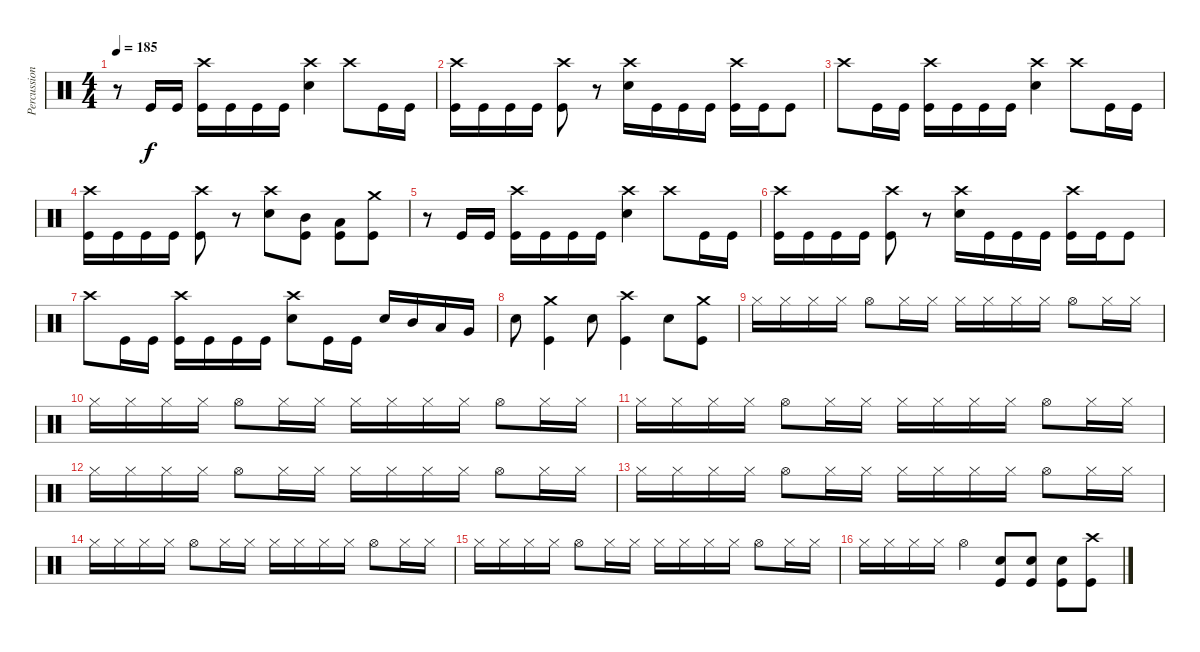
\track ("Percussion" "Percussion") {instrument percussion}
\staff {score}
\articulation defaults
\ts (4 4)
\tempo 185
\clef neutral
\ks c
r.8{dy f} "Kick (hit)".16 "Kick (hit)".16 ("Crash high (hit)" "Kick (hit)").16 "Kick (hit)".16 "Kick (hit)".16 "Kick (hit)".16 ("Crash high (hit)" "Electric Snare (hit)").4 "Crash high (hit)".8 "Kick (hit)".16 "Kick (hit)".16 |
("Crash high (hit)" "Kick (hit)").16 "Kick (hit)".16 "Kick (hit)".16 "Kick (hit)".16 ("Crash high (hit)" "Kick (hit)").8 r.8 ("Crash high (hit)" "Electric Snare (hit)").16 "Kick (hit)".16 "Kick (hit)".16 "Kick (hit)".16 ("Crash high (hit)" "Kick (hit)").16 "Kick (hit)".16 "Kick (hit)".8 |
"Crash high (hit)".8 "Kick (hit)".16 "Kick (hit)".16 ("Crash high (hit)" "Kick (hit)").16 "Kick (hit)".16 "Kick (hit)".16 "Kick (hit)".16 ("Crash high (hit)" "Electric Snare (hit)").4 "Crash high (hit)".8 "Kick (hit)".16 "Kick (hit)".16 |
("Crash high (hit)" "Kick (hit)").16 "Kick (hit)".16 "Kick (hit)".16 "Kick (hit)".16 ("Crash high (hit)" "Kick (hit)").8 r.8 ("Crash high (hit)" "Electric Snare (hit)").8 ("Mid Tom (hit)" "Kick (hit)").8 ("Low Tom (hit)" "Kick (hit)").8 ("Crash medium (hit)" "Kick (hit)").8 |
r.8 "Kick (hit)".16 "Kick (hit)".16 ("Crash high (hit)" "Kick (hit)").16 "Kick (hit)".16 "Kick (hit)".16 "Kick (hit)".16 ("Crash high (hit)" "Electric Snare (hit)").4 "Crash high (hit)".8 "Kick (hit)".16 "Kick (hit)".16 |
("Crash high (hit)" "Kick (hit)").16 "Kick (hit)".16 "Kick (hit)".16 "Kick (hit)".16 ("Crash high (hit)" "Kick (hit)").8 r.8 ("Crash high (hit)" "Electric Snare (hit)").16 "Kick (hit)".16 "Kick (hit)".16 "Kick (hit)".16 ("Crash high (hit)" "Kick (hit)").16 "Kick (hit)".16 "Kick (hit)".8 |
"Crash high (hit)".8 "Kick (hit)".16 "Kick (hit)".16 ("Crash high (hit)" "Kick (hit)").16 "Kick (hit)".16 "Kick (hit)".16 "Kick (hit)".16 ("Crash high (hit)" "Electric Snare (hit)").8 "Kick (hit)".16 "Kick (hit)".16 "Electric Snare (hit)".16 "Mid Tom (hit)".16 "Low Tom (hit)".16 "Very Low Tom (hit)".16 |
"Electric Snare (hit)".8 ("Crash medium (hit)" "Kick (hit)").4 "Electric Snare (hit)".8 ("Crash high (hit)" "Kick (hit)").4 "Electric Snare (hit)".8 ("Crash medium (hit)" "Kick (hit)").8 |
"Hi-Hat (closed)".16 "Hi-Hat (closed)".16 "Hi-Hat (closed)".16 "Hi-Hat (closed)".16 "Hi-Hat (open)".8 "Hi-Hat (closed)".16 "Hi-Hat (closed)".16 "Hi-Hat (closed)".16 "Hi-Hat (closed)".16 "Hi-Hat (closed)".16 "Hi-Hat (closed)".16 "Hi-Hat (open)".8 "Hi-Hat (closed)".16 "Hi-Hat (closed)".16 |
"Hi-Hat (closed)".16 "Hi-Hat (closed)".16 "Hi-Hat (closed)".16 "Hi-Hat (closed)".16 "Hi-Hat (open)".8 "Hi-Hat (closed)".16 "Hi-Hat (closed)".16 "Hi-Hat (closed)".16 "Hi-Hat (closed)".16 "Hi-Hat (closed)".16 "Hi-Hat (closed)".16 "Hi-Hat (open)".8 "Hi-Hat (closed)".16 "Hi-Hat (closed)".16 |
"Hi-Hat (closed)".16 "Hi-Hat (closed)".16 "Hi-Hat (closed)".16 "Hi-Hat (closed)".16 "Hi-Hat (open)".8 "Hi-Hat (closed)".16 "Hi-Hat (closed)".16 "Hi-Hat (closed)".16 "Hi-Hat (closed)".16 "Hi-Hat (closed)".16 "Hi-Hat (closed)".16 "Hi-Hat (open)".8 "Hi-Hat (closed)".16 "Hi-Hat (closed)".16 |
"Hi-Hat (closed)".16 "Hi-Hat (closed)".16 "Hi-Hat (closed)".16 "Hi-Hat (closed)".16 "Hi-Hat (open)".8 "Hi-Hat (closed)".16 "Hi-Hat (closed)".16 "Hi-Hat (closed)".16 "Hi-Hat (closed)".16 "Hi-Hat (closed)".16 "Hi-Hat (closed)".16 "Hi-Hat (open)".8 "Hi-Hat (closed)".16 "Hi-Hat (closed)".16 |
"Hi-Hat (closed)".16 "Hi-Hat (closed)".16 "Hi-Hat (closed)".16 "Hi-Hat (closed)".16 "Hi-Hat (open)".8 "Hi-Hat (closed)".16 "Hi-Hat (closed)".16 "Hi-Hat (closed)".16 "Hi-Hat (closed)".16 "Hi-Hat (closed)".16 "Hi-Hat (closed)".16 "Hi-Hat (open)".8 "Hi-Hat (closed)".16 "Hi-Hat (closed)".16 |
"Hi-Hat (closed)".16 "Hi-Hat (closed)".16 "Hi-Hat (closed)".16 "Hi-Hat (closed)".16 "Hi-Hat (open)".8 "Hi-Hat (closed)".16 "Hi-Hat (closed)".16 "Hi-Hat (closed)".16 "Hi-Hat (closed)".16 "Hi-Hat (closed)".16 "Hi-Hat (closed)".16 "Hi-Hat (open)".8 "Hi-Hat (closed)".16 "Hi-Hat (closed)".16 |
"Hi-Hat (closed)".16 "Hi-Hat (closed)".16 "Hi-Hat (closed)".16 "Hi-Hat (closed)".16 "Hi-Hat (open)".8 "Hi-Hat (closed)".16 "Hi-Hat (closed)".16 "Hi-Hat (closed)".16 "Hi-Hat (closed)".16 "Hi-Hat (closed)".16 "Hi-Hat (closed)".16 "Hi-Hat (open)".8 "Hi-Hat (closed)".16 "Hi-Hat (closed)".16 |
"Hi-Hat (closed)".16 "Hi-Hat (closed)".16 "Hi-Hat (closed)".16 "Hi-Hat (closed)".16 "Hi-Hat (open)".4 ("Electric Snare (hit)" "Kick (hit)").8 ("Electric Snare (hit)" "Kick (hit)").8 ("Electric Snare (hit)" "Kick (hit)").8 ("Crash high (hit)" "Kick (hit)").8
